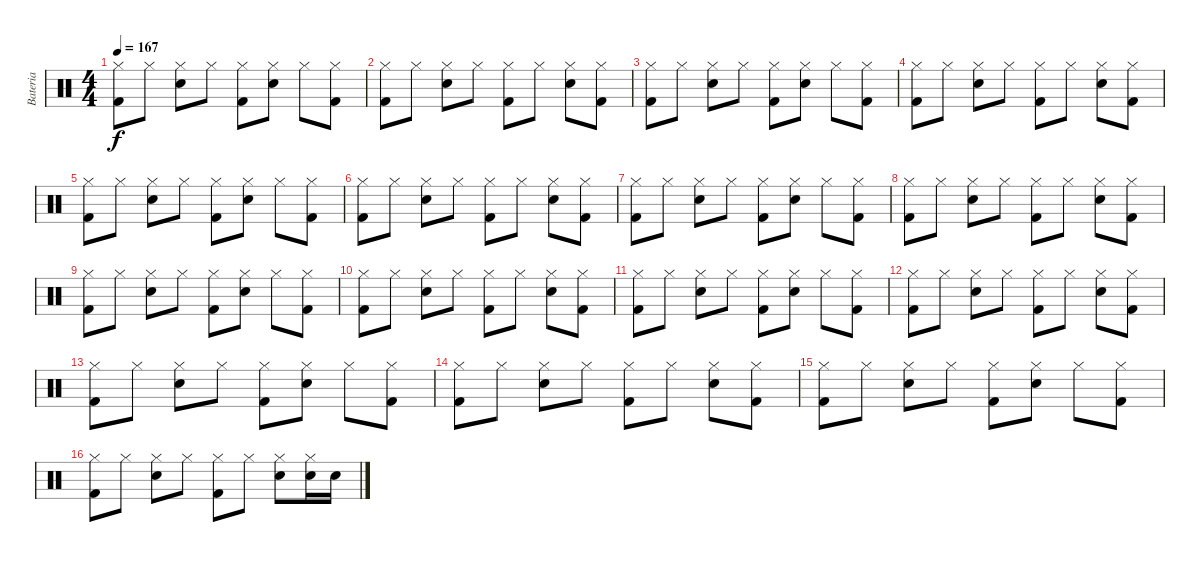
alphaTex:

\track ("Bateria" "Bateria") {instrument percussion}
\staff {score}
\articulation defaults
\ts (4 4)
\tempo 167
\clef neutral
\ks c
("Kick (hit) 2" "Hi-Hat (closed)").8{dy f} "Hi-Hat (closed)".8 ("Snare (hit) 2" "Hi-Hat (closed)").8 "Hi-Hat (closed)".8 ("Kick (hit) 2" "Hi-Hat (closed)").8 ("Snare (hit) 2" "Hi-Hat (closed)").8 "Hi-Hat (closed)".8 ("Kick (hit) 2" "Hi-Hat (closed)").8 |
("Kick (hit) 2" "Hi-Hat (closed)").8 "Hi-Hat (closed)".8 ("Snare (hit) 2" "Hi-Hat (closed)").8 "Hi-Hat (closed)".8 ("Kick (hit) 2" "Hi-Hat (closed)").8 "Hi-Hat (closed)".8 ("Snare (hit) 2" "Hi-Hat (closed)").8 ("Kick (hit) 2" "Hi-Hat (closed)").8 |
("Kick (hit) 2" "Hi-Hat (closed)").8 "Hi-Hat (closed)".8 ("Snare (hit) 2" "Hi-Hat (closed)").8 "Hi-Hat (closed)".8 ("Kick (hit) 2" "Hi-Hat (closed)").8 ("Snare (hit) 2" "Hi-Hat (closed)").8 "Hi-Hat (closed)".8 ("Kick (hit) 2" "Hi-Hat (closed)").8 |
("Kick (hit) 2" "Hi-Hat (closed)").8 "Hi-Hat (closed)".8 ("Snare (hit) 2" "Hi-Hat (closed)").8 "Hi-Hat (closed)".8 ("Kick (hit) 2" "Hi-Hat (closed)").8 "Hi-Hat (closed)".8 ("Snare (hit) 2" "Hi-Hat (closed)").8 ("Kick (hit) 2" "Hi-Hat (closed)").8 |
("Kick (hit) 2" "Hi-Hat (closed)").8 "Hi-Hat (closed)".8 ("Snare (hit) 2" "Hi-Hat (closed)").8 "Hi-Hat (closed)".8 ("Kick (hit) 2" "Hi-Hat (closed)").8 ("Snare (hit) 2" "Hi-Hat (closed)").8 "Hi-Hat (closed)".8 ("Kick (hit) 2" "Hi-Hat (closed)").8 |
("Kick (hit) 2" "Hi-Hat (closed)").8 "Hi-Hat (closed)".8 ("Snare (hit) 2" "Hi-Hat (closed)").8 "Hi-Hat (closed)".8 ("Kick (hit) 2" "Hi-Hat (closed)").8 "Hi-Hat (closed)".8 ("Snare (hit) 2" "Hi-Hat (closed)").8 ("Kick (hit) 2" "Hi-Hat (closed)").8 |
("Kick (hit) 2" "Hi-Hat (closed)").8 "Hi-Hat (closed)".8 ("Snare (hit) 2" "Hi-Hat (closed)").8 "Hi-Hat (closed)".8 ("Kick (hit) 2" "Hi-Hat (closed)").8 ("Snare (hit) 2" "Hi-Hat (closed)").8 "Hi-Hat (closed)".8 ("Kick (hit) 2" "Hi-Hat (closed)").8 |
("Kick (hit) 2" "Hi-Hat (closed)").8 "Hi-Hat (closed)".8 ("Snare (hit) 2" "Hi-Hat (closed)").8 "Hi-Hat (closed)".8 ("Kick (hit) 2" "Hi-Hat (closed)").8 "Hi-Hat (closed)".8 ("Snare (hit) 2" "Hi-Hat (closed)").8 ("Kick (hit) 2" "Hi-Hat (closed)").8 |
("Kick (hit) 2" "Hi-Hat (closed)").8 "Hi-Hat (closed)".8 ("Snare (hit) 2" "Hi-Hat (closed)").8 "Hi-Hat (closed)".8 ("Kick (hit) 2" "Hi-Hat (closed)").8 ("Snare (hit) 2" "Hi-Hat (closed)").8 "Hi-Hat (closed)".8 ("Kick (hit) 2" "Hi-Hat (closed)").8 |
("Kick (hit) 2" "Hi-Hat (closed)").8 "Hi-Hat (closed)".8 ("Snare (hit) 2" "Hi-Hat (closed)").8 "Hi-Hat (closed)".8 ("Kick (hit) 2" "Hi-Hat (closed)").8 "Hi-Hat (closed)".8 ("Snare (hit) 2" "Hi-Hat (closed)").8 ("Kick (hit) 2" "Hi-Hat (closed)").8 |
("Kick (hit) 2" "Hi-Hat (closed)").8 "Hi-Hat (closed)".8 ("Snare (hit) 2" "Hi-Hat (closed)").8 "Hi-Hat (closed)".8 ("Kick (hit) 2" "Hi-Hat (closed)").8 ("Snare (hit) 2" "Hi-Hat (closed)").8 "Hi-Hat (closed)".8 ("Kick (hit) 2" "Hi-Hat (closed)").8 |
("Kick (hit) 2" "Hi-Hat (closed)").8 "Hi-Hat (closed)".8 ("Snare (hit) 2" "Hi-Hat (closed)").8 "Hi-Hat (closed)".8 ("Kick (hit) 2" "Hi-Hat (closed)").8 "Hi-Hat (closed)".8 ("Snare (hit) 2" "Hi-Hat (closed)").8 ("Kick (hit) 2" "Hi-Hat (closed)").8 |
("Kick (hit) 2" "Hi-Hat (closed)").8 "Hi-Hat (closed)".8 ("Snare (hit) 2" "Hi-Hat (closed)").8 "Hi-Hat (closed)".8 ("Kick (hit) 2" "Hi-Hat (closed)").8 ("Snare (hit) 2" "Hi-Hat (closed)").8 "Hi-Hat (closed)".8 ("Kick (hit) 2" "Hi-Hat (closed)").8 |
("Kick (hit) 2" "Hi-Hat (closed)").8 "Hi-Hat (closed)".8 ("Snare (hit) 2" "Hi-Hat (closed)").8 "Hi-Hat (closed)".8 ("Kick (hit) 2" "Hi-Hat (closed)").8 "Hi-Hat (closed)".8 ("Snare (hit) 2" "Hi-Hat (closed)").8 ("Kick (hit) 2" "Hi-Hat (closed)").8 |
("Kick (hit) 2" "Hi-Hat (closed)").8 "Hi-Hat (closed)".8 ("Snare (hit) 2" "Hi-Hat (closed)").8 "Hi-Hat (closed)".8 ("Kick (hit) 2" "Hi-Hat (closed)").8 ("Snare (hit) 2" "Hi-Hat (closed)").8 "Hi-Hat (closed)".8 ("Kick (hit) 2" "Hi-Hat (closed)").8 |
("Kick (hit) 2" "Hi-Hat (closed)").8 "Hi-Hat (closed)".8 ("Snare (hit) 2" "Hi-Hat (closed)").8 "Hi-Hat (closed)".8 ("Kick (hit) 2" "Hi-Hat (closed)").8 "Hi-Hat (closed)".8 ("Snare (hit) 2" "Hi-Hat (closed)").8 ("Snare (hit) 2" "Hi-Hat (closed)").16 "Snare (hit) 2".16
